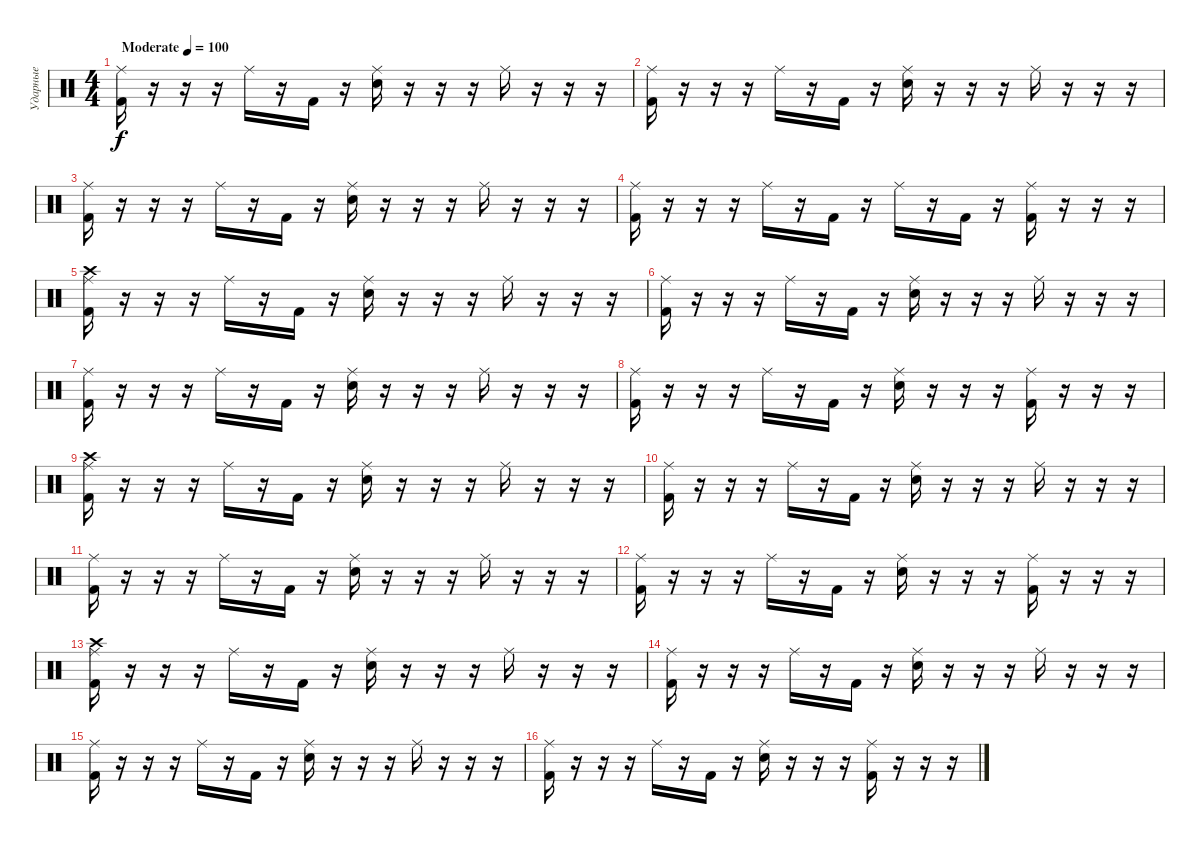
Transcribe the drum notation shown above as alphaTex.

\track ("Ударные" "Ударные") {instrument percussion}
\staff {score}
\articulation defaults
\ts (4 4)
\tempo (100 "Moderate")
\clef neutral
\ks c
("Ride (middle)" "Kick (hit) 2").16{dy f} r.16 r.16 r.16 "Ride (middle)".16 r.16 "Kick (hit) 2".16 r.16 ("Ride (middle)" "Snare (hit) 2").16 r.16 r.16 r.16 "Ride (middle)".16 r.16 r.16 r.16 |
("Ride (middle)" "Kick (hit) 2").16 r.16 r.16 r.16 "Ride (middle)".16 r.16 "Kick (hit) 2".16 r.16 ("Ride (middle)" "Snare (hit) 2").16 r.16 r.16 r.16 "Ride (middle)".16 r.16 r.16 r.16 |
("Ride (middle)" "Kick (hit) 2").16 r.16 r.16 r.16 "Ride (middle)".16 r.16 "Kick (hit) 2".16 r.16 ("Ride (middle)" "Snare (hit) 2").16 r.16 r.16 r.16 "Ride (middle)".16 r.16 r.16 r.16 |
("Ride (middle)" "Kick (hit) 2").16 r.16 r.16 r.16 "Ride (middle)".16 r.16 "Kick (hit) 2".16 r.16 "Ride (middle)".16 r.16 "Kick (hit) 2".16 r.16 ("Ride (middle)" "Kick (hit) 2").16 r.16 r.16 r.16 |
("Ride (middle)" "Crash high (hit)" "Kick (hit) 2").16 r.16 r.16 r.16 "Ride (middle)".16 r.16 "Kick (hit) 2".16 r.16 ("Ride (middle)" "Snare (hit) 2").16 r.16 r.16 r.16 "Ride (middle)".16 r.16 r.16 r.16 |
("Ride (middle)" "Kick (hit) 2").16 r.16 r.16 r.16 "Ride (middle)".16 r.16 "Kick (hit) 2".16 r.16 ("Ride (middle)" "Snare (hit) 2").16 r.16 r.16 r.16 "Ride (middle)".16 r.16 r.16 r.16 |
("Ride (middle)" "Kick (hit) 2").16 r.16 r.16 r.16 "Ride (middle)".16 r.16 "Kick (hit) 2".16 r.16 ("Ride (middle)" "Snare (hit) 2").16 r.16 r.16 r.16 "Ride (middle)".16 r.16 r.16 r.16 |
("Ride (middle)" "Kick (hit) 2").16 r.16 r.16 r.16 "Ride (middle)".16 r.16 "Kick (hit) 2".16 r.16 ("Ride (middle)" "Snare (hit) 2").16 r.16 r.16 r.16 ("Ride (middle)" "Kick (hit) 2").16 r.16 r.16 r.16 |
("Ride (middle)" "Crash high (hit)" "Kick (hit) 2").16 r.16 r.16 r.16 "Ride (middle)".16 r.16 "Kick (hit) 2".16 r.16 ("Ride (middle)" "Snare (hit) 2").16 r.16 r.16 r.16 "Ride (middle)".16 r.16 r.16 r.16 |
("Ride (middle)" "Kick (hit) 2").16 r.16 r.16 r.16 "Ride (middle)".16 r.16 "Kick (hit) 2".16 r.16 ("Ride (middle)" "Snare (hit) 2").16 r.16 r.16 r.16 "Ride (middle)".16 r.16 r.16 r.16 |
("Ride (middle)" "Kick (hit) 2").16 r.16 r.16 r.16 "Ride (middle)".16 r.16 "Kick (hit) 2".16 r.16 ("Ride (middle)" "Snare (hit) 2").16 r.16 r.16 r.16 "Ride (middle)".16 r.16 r.16 r.16 |
("Ride (middle)" "Kick (hit) 2").16 r.16 r.16 r.16 "Ride (middle)".16 r.16 "Kick (hit) 2".16 r.16 ("Ride (middle)" "Snare (hit) 2").16 r.16 r.16 r.16 ("Ride (middle)" "Kick (hit) 2").16 r.16 r.16 r.16 |
("Ride (middle)" "Crash high (hit)" "Kick (hit) 2").16 r.16 r.16 r.16 "Ride (middle)".16 r.16 "Kick (hit) 2".16 r.16 ("Ride (middle)" "Snare (hit) 2").16 r.16 r.16 r.16 "Ride (middle)".16 r.16 r.16 r.16 |
("Ride (middle)" "Kick (hit) 2").16 r.16 r.16 r.16 "Ride (middle)".16 r.16 "Kick (hit) 2".16 r.16 ("Ride (middle)" "Snare (hit) 2").16 r.16 r.16 r.16 "Ride (middle)".16 r.16 r.16 r.16 |
("Ride (middle)" "Kick (hit) 2").16 r.16 r.16 r.16 "Ride (middle)".16 r.16 "Kick (hit) 2".16 r.16 ("Ride (middle)" "Snare (hit) 2").16 r.16 r.16 r.16 "Ride (middle)".16 r.16 r.16 r.16 |
("Ride (middle)" "Kick (hit) 2").16 r.16 r.16 r.16 "Ride (middle)".16 r.16 "Kick (hit) 2".16 r.16 ("Ride (middle)" "Snare (hit) 2").16 r.16 r.16 r.16 ("Ride (middle)" "Kick (hit) 2").16 r.16 r.16 r.16
